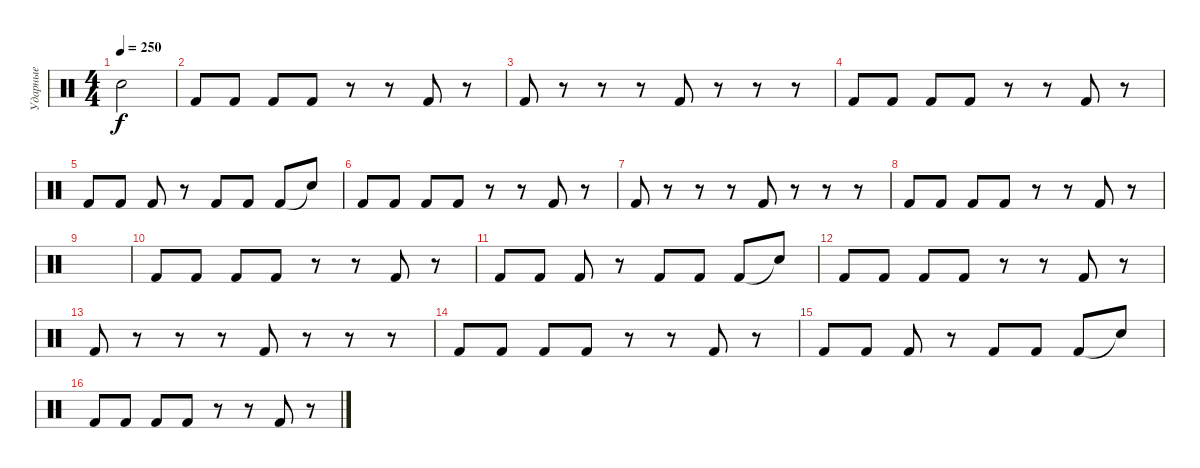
\track ("Ударные" "Ударные") {instrument percussion}
\staff {score}
\articulation defaults
\ts (4 4)
\tempo 250
\clef neutral
\ks c "Snare (hit)"{t}.2{dy f}
|
"Kick (hit) 2".8 "Kick (hit) 2".8 "Kick (hit) 2".8 "Kick (hit) 2".8 r.8 r.8 "Kick (hit) 2".8 r.8 |
"Kick (hit) 2".8 r.8 r.8 r.8 "Kick (hit) 2".8 r.8 r.8 r.8 |
"Kick (hit) 2".8 "Kick (hit) 2".8 "Kick (hit) 2".8 "Kick (hit) 2".8 r.8 r.8 "Kick (hit) 2".8 r.8 |
"Kick (hit) 2".8 "Kick (hit) 2".8 "Kick (hit) 2".8 r.8 "Kick (hit) 2".8 "Kick (hit) 2".8 "Kick (hit) 2".8 "Snare (hit)"{t}.8 |
"Kick (hit) 2".8 "Kick (hit) 2".8 "Kick (hit) 2".8 "Kick (hit) 2".8 r.8 r.8 "Kick (hit) 2".8 r.8 |
"Kick (hit) 2".8 r.8 r.8 r.8 "Kick (hit) 2".8 r.8 r.8 r.8 |
"Kick (hit) 2".8 "Kick (hit) 2".8 "Kick (hit) 2".8 "Kick (hit) 2".8 r.8 r.8 "Kick (hit) 2".8 r.8 |
|
"Kick (hit) 2".8 "Kick (hit) 2".8 "Kick (hit) 2".8 "Kick (hit) 2".8 r.8 r.8 "Kick (hit) 2".8 r.8 |
"Kick (hit) 2".8 "Kick (hit) 2".8 "Kick (hit) 2".8 r.8 "Kick (hit) 2".8 "Kick (hit) 2".8 "Kick (hit) 2".8 "Snare (hit)"{t}.8 |
"Kick (hit) 2".8 "Kick (hit) 2".8 "Kick (hit) 2".8 "Kick (hit) 2".8 r.8 r.8 "Kick (hit) 2".8 r.8 |
"Kick (hit) 2".8 r.8 r.8 r.8 "Kick (hit) 2".8 r.8 r.8 r.8 |
"Kick (hit) 2".8 "Kick (hit) 2".8 "Kick (hit) 2".8 "Kick (hit) 2".8 r.8 r.8 "Kick (hit) 2".8 r.8 |
"Kick (hit) 2".8 "Kick (hit) 2".8 "Kick (hit) 2".8 r.8 "Kick (hit) 2".8 "Kick (hit) 2".8 "Kick (hit) 2".8 "Snare (hit)"{t}.8 |
"Kick (hit) 2".8 "Kick (hit) 2".8 "Kick (hit) 2".8 "Kick (hit) 2".8 r.8 r.8 "Kick (hit) 2".8 r.8
